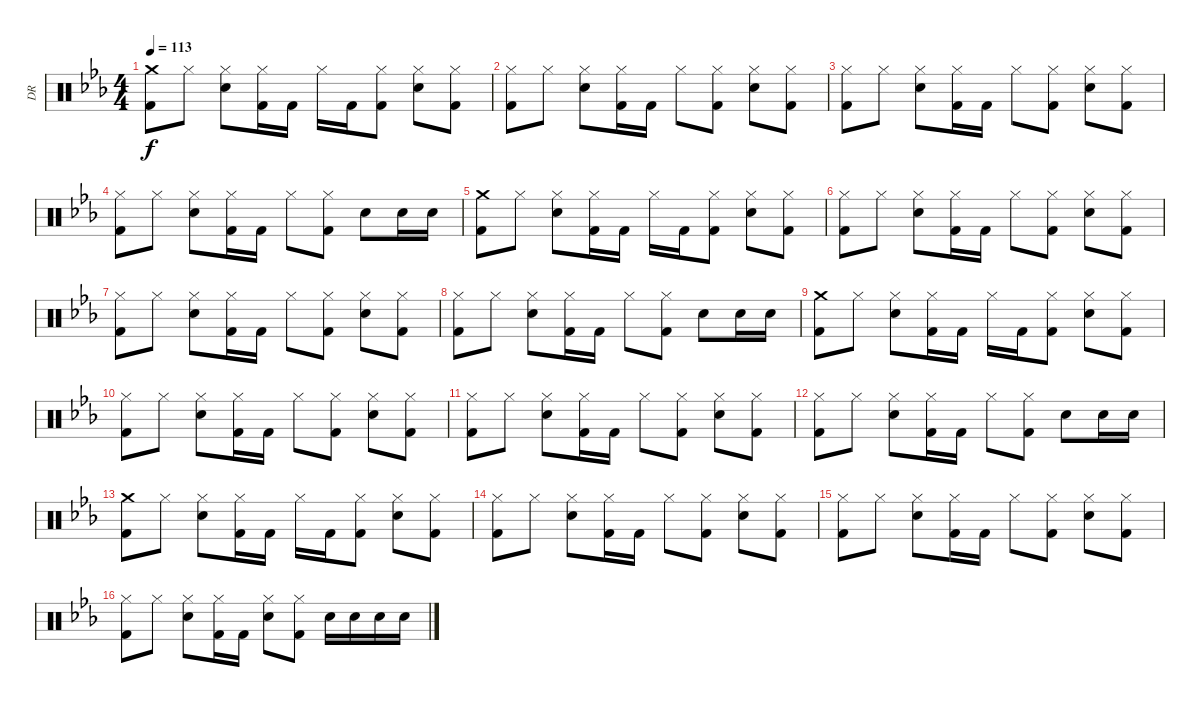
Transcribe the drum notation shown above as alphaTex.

\track ("DR" "DR") {instrument percussion}
\staff {score}
\articulation defaults
\ts (4 4)
\tempo 113
\clef neutral
\ks cminor
("Crash medium (hit)" "Kick (hit) 2").8{dy f} "Hi-Hat (closed)".8 ("Hi-Hat (closed)" "Electric Snare (hit)").8 ("Hi-Hat (closed)" "Kick (hit) 2").16 "Kick (hit) 2".16 "Hi-Hat (closed)".16 "Kick (hit) 2".16 ("Hi-Hat (closed)" "Kick (hit) 2").8 ("Hi-Hat (closed)" "Electric Snare (hit)").8 ("Hi-Hat (closed)" "Kick (hit) 2").8 |
("Hi-Hat (closed)" "Kick (hit) 2").8 "Hi-Hat (closed)".8 ("Hi-Hat (closed)" "Electric Snare (hit)").8 ("Hi-Hat (closed)" "Kick (hit) 2").16 "Kick (hit) 2".16 "Hi-Hat (closed)".8 ("Hi-Hat (closed)" "Kick (hit) 2").8 ("Hi-Hat (closed)" "Electric Snare (hit)").8 ("Hi-Hat (closed)" "Kick (hit) 2").8 |
("Hi-Hat (closed)" "Kick (hit) 2").8 "Hi-Hat (closed)".8 ("Hi-Hat (closed)" "Electric Snare (hit)").8 ("Hi-Hat (closed)" "Kick (hit) 2").16 "Kick (hit) 2".16 "Hi-Hat (closed)".8 ("Hi-Hat (closed)" "Kick (hit) 2").8 ("Hi-Hat (closed)" "Electric Snare (hit)").8 ("Hi-Hat (closed)" "Kick (hit) 2").8 |
("Hi-Hat (closed)" "Kick (hit) 2").8 "Hi-Hat (closed)".8 ("Hi-Hat (closed)" "Electric Snare (hit)").8 ("Hi-Hat (closed)" "Kick (hit) 2").16 "Kick (hit) 2".16 "Hi-Hat (closed)".8 ("Hi-Hat (closed)" "Kick (hit) 2").8 "Electric Snare (hit)".8 "Electric Snare (hit)".16 "Electric Snare (hit)".16 |
("Crash medium (hit)" "Kick (hit) 2").8 "Hi-Hat (closed)".8 ("Hi-Hat (closed)" "Electric Snare (hit)").8 ("Hi-Hat (closed)" "Kick (hit) 2").16 "Kick (hit) 2".16 "Hi-Hat (closed)".16 "Kick (hit) 2".16 ("Hi-Hat (closed)" "Kick (hit) 2").8 ("Hi-Hat (closed)" "Electric Snare (hit)").8 ("Hi-Hat (closed)" "Kick (hit) 2").8 |
("Hi-Hat (closed)" "Kick (hit) 2").8 "Hi-Hat (closed)".8 ("Hi-Hat (closed)" "Electric Snare (hit)").8 ("Hi-Hat (closed)" "Kick (hit) 2").16 "Kick (hit) 2".16 "Hi-Hat (closed)".8 ("Hi-Hat (closed)" "Kick (hit) 2").8 ("Hi-Hat (closed)" "Electric Snare (hit)").8 ("Hi-Hat (closed)" "Kick (hit) 2").8 |
("Hi-Hat (closed)" "Kick (hit) 2").8 "Hi-Hat (closed)".8 ("Hi-Hat (closed)" "Electric Snare (hit)").8 ("Hi-Hat (closed)" "Kick (hit) 2").16 "Kick (hit) 2".16 "Hi-Hat (closed)".8 ("Hi-Hat (closed)" "Kick (hit) 2").8 ("Hi-Hat (closed)" "Electric Snare (hit)").8 ("Hi-Hat (closed)" "Kick (hit) 2").8 |
("Hi-Hat (closed)" "Kick (hit) 2").8 "Hi-Hat (closed)".8 ("Hi-Hat (closed)" "Electric Snare (hit)").8 ("Hi-Hat (closed)" "Kick (hit) 2").16 "Kick (hit) 2".16 "Hi-Hat (closed)".8 ("Hi-Hat (closed)" "Kick (hit) 2").8 "Electric Snare (hit)".8 "Electric Snare (hit)".16 "Electric Snare (hit)".16 |
("Crash medium (hit)" "Kick (hit) 2").8 "Hi-Hat (closed)".8 ("Hi-Hat (closed)" "Electric Snare (hit)").8 ("Hi-Hat (closed)" "Kick (hit) 2").16 "Kick (hit) 2".16 "Hi-Hat (closed)".16 "Kick (hit) 2".16 ("Hi-Hat (closed)" "Kick (hit) 2").8 ("Hi-Hat (closed)" "Electric Snare (hit)").8 ("Hi-Hat (closed)" "Kick (hit) 2").8 |
("Hi-Hat (closed)" "Kick (hit) 2").8 "Hi-Hat (closed)".8 ("Hi-Hat (closed)" "Electric Snare (hit)").8 ("Hi-Hat (closed)" "Kick (hit) 2").16 "Kick (hit) 2".16 "Hi-Hat (closed)".8 ("Hi-Hat (closed)" "Kick (hit) 2").8 ("Hi-Hat (closed)" "Electric Snare (hit)").8 ("Hi-Hat (closed)" "Kick (hit) 2").8 |
("Hi-Hat (closed)" "Kick (hit) 2").8 "Hi-Hat (closed)".8 ("Hi-Hat (closed)" "Electric Snare (hit)").8 ("Hi-Hat (closed)" "Kick (hit) 2").16 "Kick (hit) 2".16 "Hi-Hat (closed)".8 ("Hi-Hat (closed)" "Kick (hit) 2").8 ("Hi-Hat (closed)" "Electric Snare (hit)").8 ("Hi-Hat (closed)" "Kick (hit) 2").8 |
("Hi-Hat (closed)" "Kick (hit) 2").8 "Hi-Hat (closed)".8 ("Hi-Hat (closed)" "Electric Snare (hit)").8 ("Hi-Hat (closed)" "Kick (hit) 2").16 "Kick (hit) 2".16 "Hi-Hat (closed)".8 ("Hi-Hat (closed)" "Kick (hit) 2").8 "Electric Snare (hit)".8 "Electric Snare (hit)".16 "Electric Snare (hit)".16 |
("Crash medium (hit)" "Kick (hit) 2").8 "Hi-Hat (closed)".8 ("Hi-Hat (closed)" "Electric Snare (hit)").8 ("Hi-Hat (closed)" "Kick (hit) 2").16 "Kick (hit) 2".16 "Hi-Hat (closed)".16 "Kick (hit) 2".16 ("Hi-Hat (closed)" "Kick (hit) 2").8 ("Hi-Hat (closed)" "Electric Snare (hit)").8 ("Hi-Hat (closed)" "Kick (hit) 2").8 |
("Hi-Hat (closed)" "Kick (hit) 2").8 "Hi-Hat (closed)".8 ("Hi-Hat (closed)" "Electric Snare (hit)").8 ("Hi-Hat (closed)" "Kick (hit) 2").16 "Kick (hit) 2".16 "Hi-Hat (closed)".8 ("Hi-Hat (closed)" "Kick (hit) 2").8 ("Hi-Hat (closed)" "Electric Snare (hit)").8 ("Hi-Hat (closed)" "Kick (hit) 2").8 |
("Hi-Hat (closed)" "Kick (hit) 2").8 "Hi-Hat (closed)".8 ("Hi-Hat (closed)" "Electric Snare (hit)").8 ("Hi-Hat (closed)" "Kick (hit) 2").16 "Kick (hit) 2".16 "Hi-Hat (closed)".8 ("Hi-Hat (closed)" "Kick (hit) 2").8 ("Hi-Hat (closed)" "Electric Snare (hit)").8 ("Hi-Hat (closed)" "Kick (hit) 2").8 |
("Hi-Hat (closed)" "Kick (hit) 2").8 "Hi-Hat (closed)".8 ("Hi-Hat (closed)" "Electric Snare (hit)").8 ("Hi-Hat (closed)" "Kick (hit) 2").16 "Kick (hit) 2".16 ("Hi-Hat (closed)" "Electric Snare (hit)").8 ("Hi-Hat (closed)" "Kick (hit) 2").8 "Electric Snare (hit)".16 "Electric Snare (hit)".16 "Electric Snare (hit)".16 "Electric Snare (hit)".16
